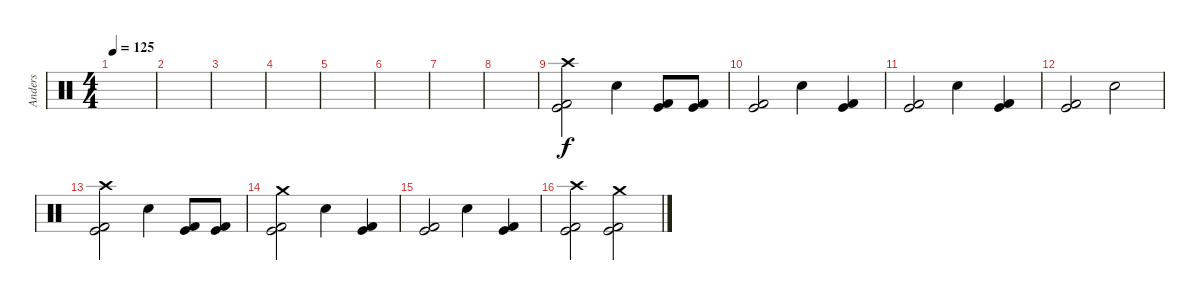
\track ("Anders" "Anders") {instrument percussion}
\staff {score}
\articulation defaults
\ts (4 4)
\tempo 125
\clef neutral
\ks c
|
|
|
|
|
|
|
|
("Crash high (hit)" "Kick (hit) 2" "Kick (hit)").2 "Electric Snare (hit)".4 ("Kick (hit) 2" "Kick (hit)").8 ("Kick (hit) 2" "Kick (hit)").8 |
("Kick (hit) 2" "Kick (hit)").2 "Electric Snare (hit)".4 ("Kick (hit) 2" "Kick (hit)").4 |
("Kick (hit) 2" "Kick (hit)").2 "Electric Snare (hit)".4 ("Kick (hit) 2" "Kick (hit)").4 |
("Kick (hit) 2" "Kick (hit)").2 "Electric Snare (hit)".2 |
("Crash high (hit)" "Kick (hit) 2" "Kick (hit)").2 "Electric Snare (hit)".4 ("Kick (hit) 2" "Kick (hit)").8 ("Kick (hit) 2" "Kick (hit)").8 |
("Crash medium (hit)" "Kick (hit)" "Kick (hit) 2").2 "Electric Snare (hit)".4 ("Kick (hit) 2" "Kick (hit)").4 |
("Kick (hit) 2" "Kick (hit)").2 "Electric Snare (hit)".4 ("Kick (hit) 2" "Kick (hit)").4 |
("Crash high (hit)" "Kick (hit) 2" "Kick (hit)").2 ("Crash medium (hit)" "Kick (hit) 2" "Kick (hit)").2
